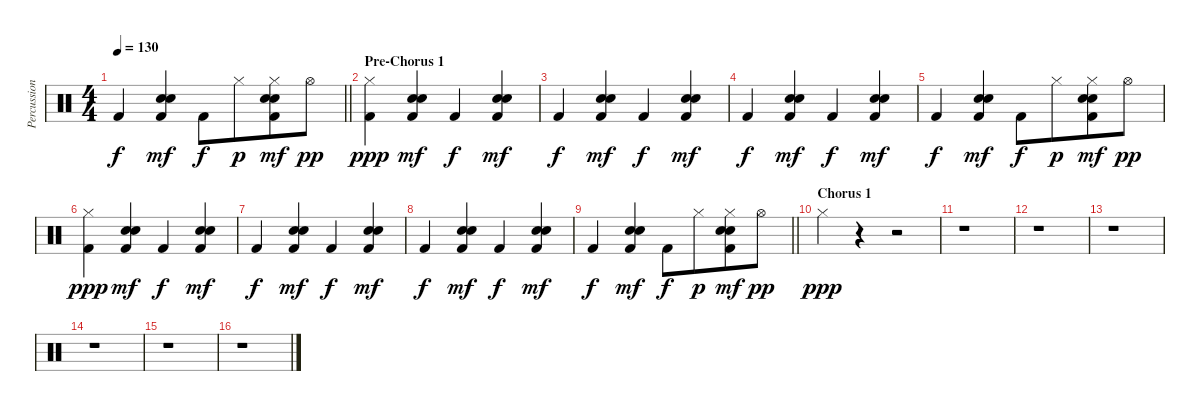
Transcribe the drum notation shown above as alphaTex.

\track ("Percussion" "Percussion") {instrument percussion}
\staff {score}
\articulation defaults
\ts (4 4)
\tempo 130
\clef neutral
\barLineRight lightlight
\ks aminor "Kick (hit) 2".4{dy f}
("Hand Clap (hit)" "Snare (hit) 2" "Kick (hit) 2").4{dy mf} "Kick (hit) 2".8{dy f} "Hi-Hat (closed)".8{dy p beam merge} ("Hi-Hat (closed)" "Hand Clap (hit)" "Snare (hit) 2" "Kick (hit) 2").8{dy mf} "Hi-Hat (open)".8{dy pp} |
\section ("" "Pre-Chorus 1")
("Hi-Hat (closed)" "Kick (hit) 2").4{dy ppp} ("Hand Clap (hit)" "Snare (hit) 2" "Kick (hit) 2").4{dy mf} "Kick (hit) 2".4{dy f} ("Hand Clap (hit)" "Snare (hit) 2" "Kick (hit) 2").4{dy mf} |
"Kick (hit) 2".4{dy f} ("Hand Clap (hit)" "Snare (hit) 2" "Kick (hit) 2").4{dy mf} "Kick (hit) 2".4{dy f} ("Hand Clap (hit)" "Snare (hit) 2" "Kick (hit) 2").4{dy mf} |
"Kick (hit) 2".4{dy f} ("Hand Clap (hit)" "Snare (hit) 2" "Kick (hit) 2").4{dy mf} "Kick (hit) 2".4{dy f} ("Hand Clap (hit)" "Snare (hit) 2" "Kick (hit) 2").4{dy mf} |
"Kick (hit) 2".4{dy f} ("Hand Clap (hit)" "Snare (hit) 2" "Kick (hit) 2").4{dy mf} "Kick (hit) 2".8{dy f} "Hi-Hat (closed)".8{dy p beam merge} ("Hi-Hat (closed)" "Hand Clap (hit)" "Snare (hit) 2" "Kick (hit) 2").8{dy mf} "Hi-Hat (open)".8{dy pp} |
("Hi-Hat (closed)" "Kick (hit) 2").4{dy ppp} ("Hand Clap (hit)" "Snare (hit) 2" "Kick (hit) 2").4{dy mf} "Kick (hit) 2".4{dy f} ("Hand Clap (hit)" "Snare (hit) 2" "Kick (hit) 2").4{dy mf} |
"Kick (hit) 2".4{dy f} ("Hand Clap (hit)" "Snare (hit) 2" "Kick (hit) 2").4{dy mf} "Kick (hit) 2".4{dy f} ("Hand Clap (hit)" "Snare (hit) 2" "Kick (hit) 2").4{dy mf} |
"Kick (hit) 2".4{dy f} ("Hand Clap (hit)" "Snare (hit) 2" "Kick (hit) 2").4{dy mf} "Kick (hit) 2".4{dy f} ("Hand Clap (hit)" "Snare (hit) 2" "Kick (hit) 2").4{dy mf} |
\barLineRight lightlight "Kick (hit) 2".4{dy f}
("Hand Clap (hit)" "Snare (hit) 2" "Kick (hit) 2").4{dy mf} "Kick (hit) 2".8{dy f} "Hi-Hat (closed)".8{dy p beam merge} ("Hi-Hat (closed)" "Hand Clap (hit)" "Snare (hit) 2" "Kick (hit) 2").8{dy mf} "Hi-Hat (open)".8{dy pp} |
\section ("" "Chorus 1")
"Hi-Hat (closed)".4{dy ppp} r.4 r.2 |
r.1 |
r.1 |
r.1 |
r.1 |
r.1 |
r.1
